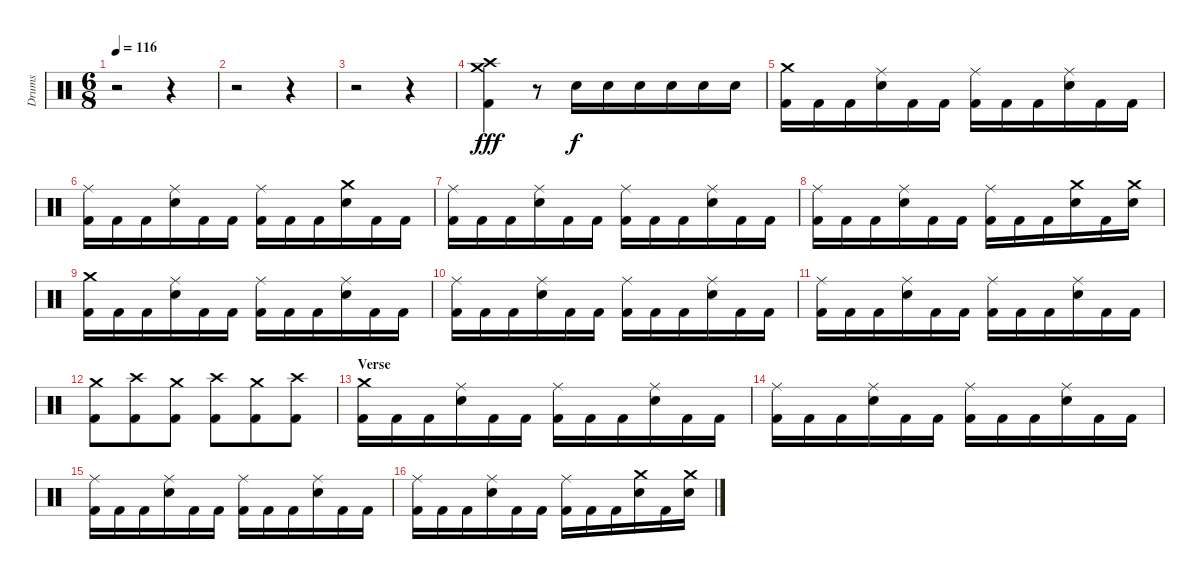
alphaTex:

\track ("Drums" "Drums") {instrument percussion}
\staff {score}
\articulation defaults
\ts (6 8)
\tempo 116
\clef neutral
\ks c
r.2{dy fff} r.4 |
r.2 r.4 |
r.2 r.4 |
("Crash medium (hit)" "Crash high (hit)" "Kick (hit) 2").4 r.8 "Electric Snare (hit)".16{dy f} "Electric Snare (hit)".16 "Electric Snare (hit)".16 "Electric Snare (hit)".16 "Electric Snare (hit)".16 "Electric Snare (hit)".16 |
("Crash medium (hit)" "Kick (hit) 2").16 "Kick (hit) 2".16 "Kick (hit) 2".16 ("Ride (middle)" "Electric Snare (hit)").16 "Kick (hit) 2".16 "Kick (hit) 2".16 ("Ride (middle)" "Kick (hit) 2").16 "Kick (hit) 2".16 "Kick (hit) 2".16 ("Ride (middle)" "Electric Snare (hit)").16 "Kick (hit) 2".16 "Kick (hit) 2".16 |
("Ride (middle)" "Kick (hit) 2").16 "Kick (hit) 2".16 "Kick (hit) 2".16 ("Ride (middle)" "Electric Snare (hit)").16 "Kick (hit) 2".16 "Kick (hit) 2".16 ("Ride (middle)" "Kick (hit) 2").16 "Kick (hit) 2".16 "Kick (hit) 2".16 ("Crash medium (hit)" "Electric Snare (hit)").16 "Kick (hit) 2".16 "Kick (hit) 2".16 |
("Ride (middle)" "Kick (hit) 2").16 "Kick (hit) 2".16 "Kick (hit) 2".16 ("Ride (middle)" "Electric Snare (hit)").16 "Kick (hit) 2".16 "Kick (hit) 2".16 ("Ride (middle)" "Kick (hit) 2").16 "Kick (hit) 2".16 "Kick (hit) 2".16 ("Ride (middle)" "Electric Snare (hit)").16 "Kick (hit) 2".16 "Kick (hit) 2".16 |
("Ride (middle)" "Kick (hit) 2").16 "Kick (hit) 2".16 "Kick (hit) 2".16 ("Ride (middle)" "Electric Snare (hit)").16 "Kick (hit) 2".16 "Kick (hit) 2".16 ("Ride (middle)" "Kick (hit) 2").16 "Kick (hit) 2".16 "Kick (hit) 2".16 ("Crash medium (hit)" "Electric Snare (hit)").16 "Kick (hit) 2".16 ("Crash medium (hit)" "Electric Snare (hit)").16 |
("Crash medium (hit)" "Kick (hit) 2").16 "Kick (hit) 2".16 "Kick (hit) 2".16 ("Ride (middle)" "Electric Snare (hit)").16 "Kick (hit) 2".16 "Kick (hit) 2".16 ("Ride (middle)" "Kick (hit) 2").16 "Kick (hit) 2".16 "Kick (hit) 2".16 ("Ride (middle)" "Electric Snare (hit)").16 "Kick (hit) 2".16 "Kick (hit) 2".16 |
("Ride (middle)" "Kick (hit) 2").16 "Kick (hit) 2".16 "Kick (hit) 2".16 ("Ride (middle)" "Electric Snare (hit)").16 "Kick (hit) 2".16 "Kick (hit) 2".16 ("Ride (middle)" "Kick (hit) 2").16 "Kick (hit) 2".16 "Kick (hit) 2".16 ("Ride (middle)" "Electric Snare (hit)").16 "Kick (hit) 2".16 "Kick (hit) 2".16 |
("Ride (middle)" "Kick (hit) 2").16 "Kick (hit) 2".16 "Kick (hit) 2".16 ("Ride (middle)" "Electric Snare (hit)").16 "Kick (hit) 2".16 "Kick (hit) 2".16 ("Ride (middle)" "Kick (hit) 2").16 "Kick (hit) 2".16 "Kick (hit) 2".16 ("Ride (middle)" "Electric Snare (hit)").16 "Kick (hit) 2".16 "Kick (hit) 2".16 |
("Crash medium (hit)" "Kick (hit) 2").8 ("Crash high (hit)" "Kick (hit) 2").8 ("Crash medium (hit)" "Kick (hit) 2").8 ("Crash high (hit)" "Kick (hit) 2").8 ("Crash medium (hit)" "Kick (hit) 2").8 ("Crash high (hit)" "Kick (hit) 2").8 |
\section ("" "Verse")
("Crash medium (hit)" "Kick (hit) 2").16 "Kick (hit) 2".16 "Kick (hit) 2".16 ("Ride (middle)" "Electric Snare (hit)").16 "Kick (hit) 2".16 "Kick (hit) 2".16 ("Ride (middle)" "Kick (hit) 2").16 "Kick (hit) 2".16 "Kick (hit) 2".16 ("Ride (middle)" "Electric Snare (hit)").16 "Kick (hit) 2".16 "Kick (hit) 2".16 |
("Ride (middle)" "Kick (hit) 2").16 "Kick (hit) 2".16 "Kick (hit) 2".16 ("Ride (middle)" "Electric Snare (hit)").16 "Kick (hit) 2".16 "Kick (hit) 2".16 ("Ride (middle)" "Kick (hit) 2").16 "Kick (hit) 2".16 "Kick (hit) 2".16 ("Ride (middle)" "Electric Snare (hit)").16 "Kick (hit) 2".16 "Kick (hit) 2".16 |
("Ride (middle)" "Kick (hit) 2").16 "Kick (hit) 2".16 "Kick (hit) 2".16 ("Ride (middle)" "Electric Snare (hit)").16 "Kick (hit) 2".16 "Kick (hit) 2".16 ("Ride (middle)" "Kick (hit) 2").16 "Kick (hit) 2".16 "Kick (hit) 2".16 ("Ride (middle)" "Electric Snare (hit)").16 "Kick (hit) 2".16 "Kick (hit) 2".16 |
("Ride (middle)" "Kick (hit) 2").16 "Kick (hit) 2".16 "Kick (hit) 2".16 ("Ride (middle)" "Electric Snare (hit)").16 "Kick (hit) 2".16 "Kick (hit) 2".16 ("Ride (middle)" "Kick (hit) 2").16 "Kick (hit) 2".16 "Kick (hit) 2".16 ("Crash medium (hit)" "Electric Snare (hit)").16 "Kick (hit) 2".16 ("Crash medium (hit)" "Electric Snare (hit)").16
